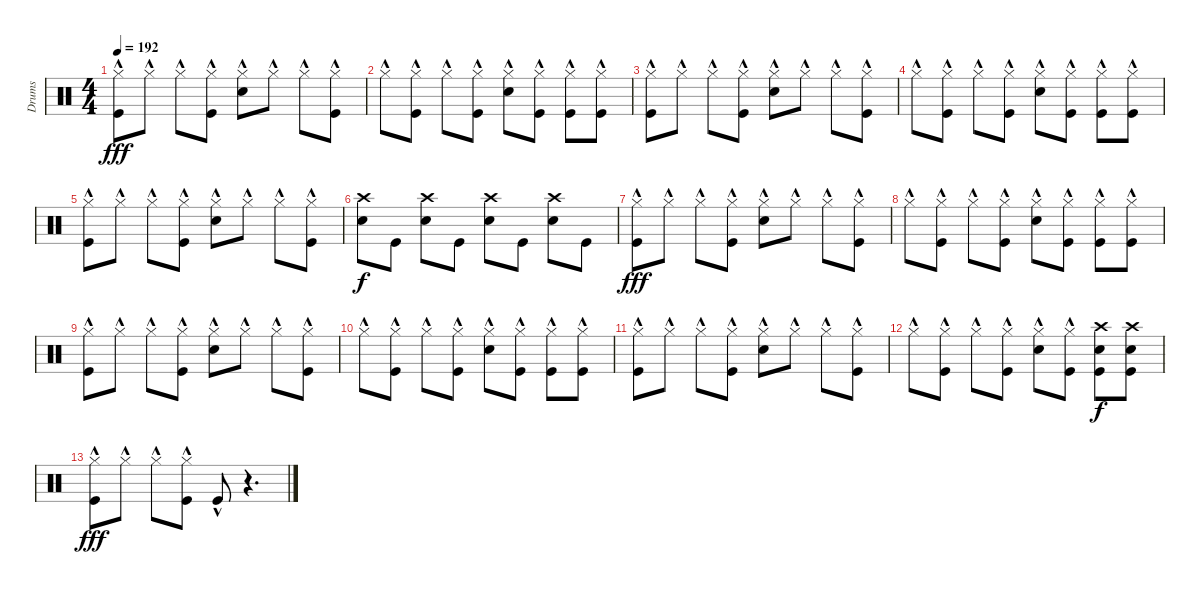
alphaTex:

\track ("Drums" "Drums") {instrument percussion}
\staff {score}
\articulation defaults
\ts (4 4)
\tempo 192
\clef neutral
\ks c
("Kick (hit)"{hac} "Hi-Hat (closed)"{hac}).8{dy fff} "Hi-Hat (closed)"{hac}.8 "Hi-Hat (closed)"{hac}.8 ("Kick (hit)"{hac} "Hi-Hat (closed)"{hac}).8 ("Snare (hit) 2"{hac} "Hi-Hat (closed)"{hac}).8 "Hi-Hat (closed)"{hac}.8 "Hi-Hat (closed)"{hac}.8 ("Kick (hit)"{hac} "Hi-Hat (closed)"{hac}).8 |
"Hi-Hat (closed)"{hac}.8 ("Kick (hit)"{hac} "Hi-Hat (closed)"{hac}).8 "Hi-Hat (closed)"{hac}.8 ("Kick (hit)"{hac} "Hi-Hat (closed)"{hac}).8 ("Snare (hit) 2"{hac} "Hi-Hat (closed)"{hac}).8 ("Kick (hit)"{hac} "Hi-Hat (closed)"{hac}).8 ("Kick (hit)" "Hi-Hat (closed)"{hac}).8 ("Kick (hit)" "Hi-Hat (closed)"{hac}).8 |
("Kick (hit)"{hac} "Hi-Hat (closed)"{hac}).8 "Hi-Hat (closed)"{hac}.8 "Hi-Hat (closed)"{hac}.8 ("Kick (hit)"{hac} "Hi-Hat (closed)"{hac}).8 ("Snare (hit) 2"{hac} "Hi-Hat (closed)"{hac}).8 "Hi-Hat (closed)"{hac}.8 "Hi-Hat (closed)"{hac}.8 ("Kick (hit)"{hac} "Hi-Hat (closed)"{hac}).8 |
"Hi-Hat (closed)"{hac}.8 ("Kick (hit)"{hac} "Hi-Hat (closed)"{hac}).8 "Hi-Hat (closed)"{hac}.8 ("Kick (hit)"{hac} "Hi-Hat (closed)"{hac}).8 ("Snare (hit) 2"{hac} "Hi-Hat (closed)"{hac}).8 ("Kick (hit)"{hac} "Hi-Hat (closed)"{hac}).8 ("Kick (hit)" "Hi-Hat (closed)"{hac}).8 ("Kick (hit)" "Hi-Hat (closed)"{hac}).8 |
("Kick (hit)"{hac} "Hi-Hat (closed)"{hac}).8 "Hi-Hat (closed)"{hac}.8 "Hi-Hat (closed)"{hac}.8 ("Kick (hit)"{hac} "Hi-Hat (closed)"{hac}).8 ("Snare (hit) 2"{hac} "Hi-Hat (closed)"{hac}).8 "Hi-Hat (closed)"{hac}.8 "Hi-Hat (closed)"{hac}.8 ("Kick (hit)"{hac} "Hi-Hat (closed)"{hac}).8 |
("Crash high (hit)" "Snare (hit) 2").8{dy f} "Kick (hit)".8 ("Crash high (hit)" "Snare (hit) 2").8 "Kick (hit)".8 ("Crash high (hit)" "Snare (hit) 2").8 "Kick (hit)".8 ("Snare (hit) 2" "Crash high (hit)").8 "Kick (hit)".8 |
("Kick (hit)"{hac} "Hi-Hat (closed)"{hac}).8{dy fff} "Hi-Hat (closed)"{hac}.8 "Hi-Hat (closed)"{hac}.8 ("Kick (hit)"{hac} "Hi-Hat (closed)"{hac}).8 ("Snare (hit) 2"{hac} "Hi-Hat (closed)"{hac}).8 "Hi-Hat (closed)"{hac}.8 "Hi-Hat (closed)"{hac}.8 ("Kick (hit)"{hac} "Hi-Hat (closed)"{hac}).8 |
"Hi-Hat (closed)"{hac}.8 ("Kick (hit)"{hac} "Hi-Hat (closed)"{hac}).8 "Hi-Hat (closed)"{hac}.8 ("Kick (hit)"{hac} "Hi-Hat (closed)"{hac}).8 ("Snare (hit) 2"{hac} "Hi-Hat (closed)"{hac}).8 ("Kick (hit)"{hac} "Hi-Hat (closed)"{hac}).8 ("Kick (hit)" "Hi-Hat (closed)"{hac}).8 ("Kick (hit)" "Hi-Hat (closed)"{hac}).8 |
("Kick (hit)"{hac} "Hi-Hat (closed)"{hac}).8 "Hi-Hat (closed)"{hac}.8 "Hi-Hat (closed)"{hac}.8 ("Kick (hit)"{hac} "Hi-Hat (closed)"{hac}).8 ("Snare (hit) 2"{hac} "Hi-Hat (closed)"{hac}).8 "Hi-Hat (closed)"{hac}.8 "Hi-Hat (closed)"{hac}.8 ("Kick (hit)"{hac} "Hi-Hat (closed)"{hac}).8 |
"Hi-Hat (closed)"{hac}.8 ("Kick (hit)"{hac} "Hi-Hat (closed)"{hac}).8 "Hi-Hat (closed)"{hac}.8 ("Kick (hit)"{hac} "Hi-Hat (closed)"{hac}).8 ("Snare (hit) 2"{hac} "Hi-Hat (closed)"{hac}).8 ("Kick (hit)"{hac} "Hi-Hat (closed)"{hac}).8 ("Kick (hit)" "Hi-Hat (closed)"{hac}).8 ("Kick (hit)" "Hi-Hat (closed)"{hac}).8 |
("Kick (hit)"{hac} "Hi-Hat (closed)"{hac}).8 "Hi-Hat (closed)"{hac}.8 "Hi-Hat (closed)"{hac}.8 ("Kick (hit)"{hac} "Hi-Hat (closed)"{hac}).8 ("Snare (hit) 2"{hac} "Hi-Hat (closed)"{hac}).8 "Hi-Hat (closed)"{hac}.8 "Hi-Hat (closed)"{hac}.8 ("Kick (hit)"{hac} "Hi-Hat (closed)"{hac}).8 |
"Hi-Hat (closed)"{hac}.8 ("Kick (hit)"{hac} "Hi-Hat (closed)"{hac}).8 "Hi-Hat (closed)"{hac}.8 ("Kick (hit)"{hac} "Hi-Hat (closed)"{hac}).8 ("Snare (hit) 2"{hac} "Hi-Hat (closed)"{hac}).8 ("Kick (hit)"{hac} "Hi-Hat (closed)"{hac}).8 ("Crash high (hit)" "Snare (hit) 2" "Kick (hit)").8{dy f} ("Crash high (hit)" "Kick (hit)" "Snare (hit) 2").8 |
("Kick (hit)"{hac} "Hi-Hat (closed)"{hac}).8{dy fff} "Hi-Hat (closed)"{hac}.8 "Hi-Hat (closed)"{hac}.8 ("Kick (hit)"{hac} "Hi-Hat (closed)"{hac}).8 "Kick (hit)"{hac}.8 r.4{d}
